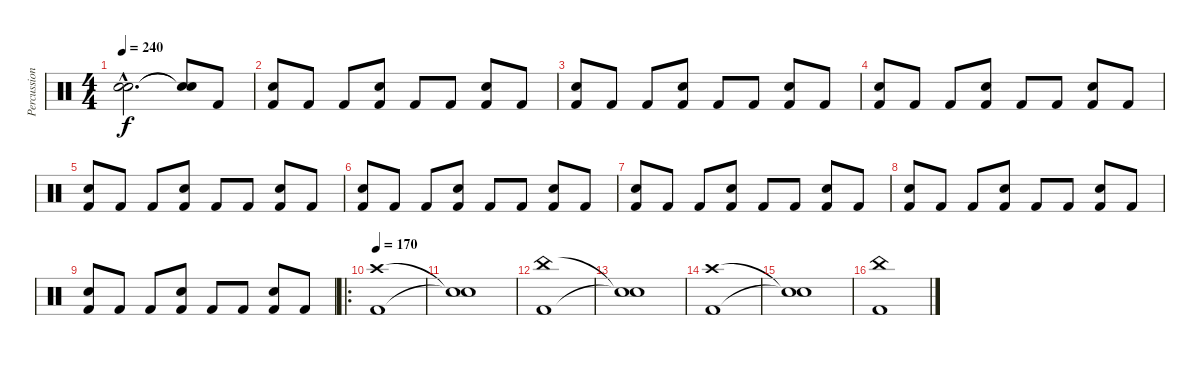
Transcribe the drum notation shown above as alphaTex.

\track ("Percussion" "Percussion") {instrument percussion}
\staff {score}
\articulation defaults
\ts (4 4)
\tempo 240
\clef neutral
\ks c
("Snare (hit)"{hac t} "Snare (hit)"{hac t}).2{d dy f} ("Snare (hit)"{t} "Snare (hit)"{t}).8 "Kick (hit) 2".8 |
("Snare (hit) 2" "Kick (hit) 2").8 "Kick (hit) 2".8 "Kick (hit) 2".8 ("Snare (hit) 2" "Kick (hit) 2").8 "Kick (hit) 2".8 "Kick (hit) 2".8 ("Snare (hit) 2" "Kick (hit) 2").8 "Kick (hit) 2".8 |
("Snare (hit) 2" "Kick (hit) 2").8 "Kick (hit) 2".8 "Kick (hit) 2".8 ("Snare (hit) 2" "Kick (hit) 2").8 "Kick (hit) 2".8 "Kick (hit) 2".8 ("Snare (hit) 2" "Kick (hit) 2").8 "Kick (hit) 2".8 |
("Snare (hit) 2" "Kick (hit) 2").8 "Kick (hit) 2".8 "Kick (hit) 2".8 ("Snare (hit) 2" "Kick (hit) 2").8 "Kick (hit) 2".8 "Kick (hit) 2".8 ("Snare (hit) 2" "Kick (hit) 2").8 "Kick (hit) 2".8 |
("Snare (hit) 2" "Kick (hit) 2").8 "Kick (hit) 2".8 "Kick (hit) 2".8 ("Snare (hit) 2" "Kick (hit) 2").8 "Kick (hit) 2".8 "Kick (hit) 2".8 ("Snare (hit) 2" "Kick (hit) 2").8 "Kick (hit) 2".8 |
("Snare (hit) 2" "Kick (hit) 2").8 "Kick (hit) 2".8 "Kick (hit) 2".8 ("Snare (hit) 2" "Kick (hit) 2").8 "Kick (hit) 2".8 "Kick (hit) 2".8 ("Snare (hit) 2" "Kick (hit) 2").8 "Kick (hit) 2".8 |
("Snare (hit) 2" "Kick (hit) 2").8 "Kick (hit) 2".8 "Kick (hit) 2".8 ("Snare (hit) 2" "Kick (hit) 2").8 "Kick (hit) 2".8 "Kick (hit) 2".8 ("Snare (hit) 2" "Kick (hit) 2").8 "Kick (hit) 2".8 |
("Snare (hit) 2" "Kick (hit) 2").8 "Kick (hit) 2".8 "Kick (hit) 2".8 ("Snare (hit) 2" "Kick (hit) 2").8 "Kick (hit) 2".8 "Kick (hit) 2".8 ("Snare (hit) 2" "Kick (hit) 2").8 "Kick (hit) 2".8 |
("Snare (hit) 2" "Kick (hit) 2").8 "Kick (hit) 2".8 "Kick (hit) 2".8 ("Snare (hit) 2" "Kick (hit) 2").8 "Kick (hit) 2".8 "Kick (hit) 2".8 ("Snare (hit) 2" "Kick (hit) 2").8 "Kick (hit) 2".8 |
\ro
\tempo 170
("Kick (hit) 2" "Crash high (hit)").1 |
("Snare (hit)"{t} "Snare (hit)"{t}).1 |
("China (hit)" "Kick (hit) 2").1 |
("Snare (hit)"{t} "Snare (hit)"{t}).1 |
("Kick (hit) 2" "Crash high (hit)").1 |
("Snare (hit)"{t} "Snare (hit)"{t}).1 |
("China (hit)" "Kick (hit) 2").1
